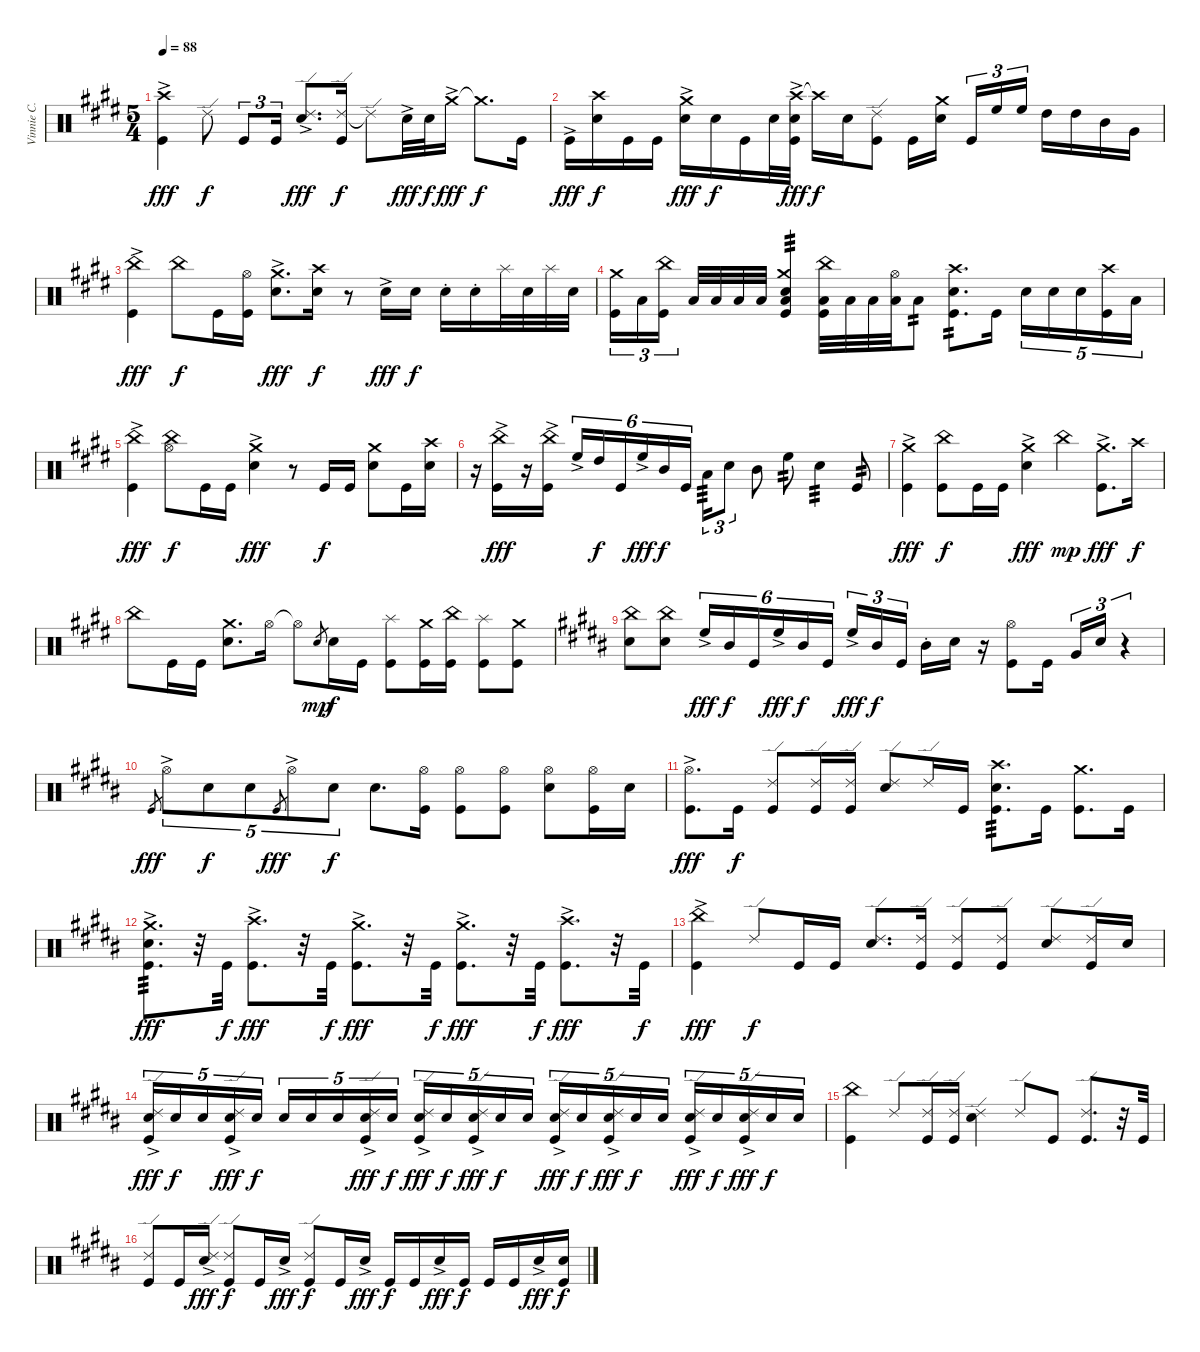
\track ("Vinnie C." "Vinnie C.") {instrument percussion}
\staff {score}
\articulation defaults
\ts (5 4)
\tempo 88
\clef neutral
\ks e
("Crash high (hit)"{ac} "Kick (hit)").4{dy fff} "Ride (edge) 2".8{dy f} "Kick (hit)".8{tu (3 2)} "Kick (hit)".16{tu (3 2)} ("Ride (edge) 2"{ac} "Electric Snare (hit)").8{d dy fff} ("Ride (edge) 2" "Kick (hit)").16{dy f} "Ride (edge) 2"{t}.8 "Electric Snare (hit)"{ac}.32{dy fff} "Electric Snare (hit)".32{dy f} "Crash medium (hit)"{ac}.16{dy fff} "Crash medium (hit)"{t}.8{d dy f} "Kick (hit)".16 |
"Kick (hit)"{ac}.16{dy fff} ("Crash high (hit)" "Electric Snare (hit)").16{dy f} "Kick (hit)".16 "Kick (hit)".16 ("Crash medium (hit)"{ac} "Electric Snare (hit)").16{dy fff} "Electric Snare (hit)".16{dy f} "Kick (hit)".16 "Electric Snare (hit)".32 ("Crash high (hit)"{ac} "Electric Snare (hit)" "Kick (hit)").32{dy fff} "Crash high (hit)"{t}.16{dy f} "Electric Snare (hit)".16 ("Ride (edge) 2" "Kick (hit)").8 "Kick (hit)".16 ("Crash medium (hit)" "Electric Snare (hit)").16 "Kick (hit)".16{tu (3 2)} "High Floor Tom (hit)".16{tu (3 2)} "High Floor Tom (hit)".16{tu (3 2)} "High Tom (hit)".16 "High Tom (hit)".16 "Mid Tom (hit)".16 "Very Low Tom (hit)".16 |
("China (hit)"{ac} "Kick (hit)").4{dy fff} "China (hit)".8{dy f} "Kick (hit)".16 ("Hi-Hat (open)" "Kick (hit)").16 ("Crash medium (hit)"{ac} "Electric Snare (hit)").8{d dy fff} ("Crash high (hit)" "Electric Snare (hit)").16{dy f} r.8 "Electric Snare (hit)"{ac}.16{dy fff} "Electric Snare (hit)".16{dy f} "Electric Snare (hit)"{st}.16 "Electric Snare (hit)"{st}.16 "Splash (hit)".32 "Electric Snare (hit)".32 "Splash (hit)".32 "Electric Snare (hit)".32 |
("Crash medium (hit)" "Kick (hit)").16{tu (3 2)} "Low Floor Tom (hit)".16{tu (3 2)} ("China (hit)" "Kick (hit)").16{tu (3 2)} "Low Floor Tom (hit)".32 "Low Floor Tom (hit)".32 "Low Floor Tom (hit)".32 "Low Floor Tom (hit)".32 ("Crash medium (hit)" "Low Floor Tom (hit)" "Electric Snare (hit)" "Kick (hit)").4{tp 3} ("China (hit)" "Low Floor Tom (hit)" "Kick (hit)").32 "Low Floor Tom (hit)".32 "Low Floor Tom (hit)".32 ("Hi-Hat (open)" "Low Floor Tom (hit)").32 "Low Floor Tom (hit)".8{tp 2} ("Crash high (hit)" "Electric Snare (hit)" "Kick (hit)").8{d tp 2} "Kick (hit)".16 "Electric Snare (hit)".16{tu (5 4)} "Electric Snare (hit)".16{tu (5 4)} "Electric Snare (hit)".16{tu (5 4)} ("Crash high (hit)" "Kick (hit)").16{tu (5 4)} "Low Floor Tom (hit)".16{tu (5 4)} |
("China (hit)"{ac} "Kick (hit)").4{dy fff} ("China (hit)" "Hi-Hat (open)").8{dy f} "Kick (hit)".16 "Kick (hit)".16 ("Crash medium (hit)"{ac} "Electric Snare (hit)").4{dy fff} r.8 "Kick (hit)".16{dy f} "Kick (hit)".16 ("Crash medium (hit)" "Electric Snare (hit)").8 "Kick (hit)".16 ("Crash high (hit)" "Electric Snare (hit)").16 |
r.16 ("China (hit)"{ac} "Kick (hit)").16{dy fff} r.16 ("China (hit)"{ac} "Kick (hit)").16 "High Floor Tom (hit)"{ac}.16{tu (6 4)} "High Tom (hit)".16{tu (6 4) dy f} "Kick (hit)".16{tu (6 4)} "High Floor Tom (hit)"{ac}.16{tu (6 4) dy fff} "Mid Tom (hit)".16{tu (6 4) dy f} "Kick (hit)".16{tu (6 4)} "Low Floor Tom (hit)".16{tu (3 2) tp 3} "Electric Snare (hit)".8{tu (3 2)} "Mid Tom (hit)".8 "High Floor Tom (hit)".8{tp 2} "Electric Snare (hit)".4{tp 3} "Kick (hit)".8{tp 2} |
("Crash medium (hit)"{ac} "Kick (hit)").4{dy fff} ("China (hit)" "Kick (hit)").8{dy f} "Kick (hit)".16 "Kick (hit)".16 ("Crash medium (hit)"{ac} "Electric Snare (hit)").4{dy fff} "China (hit)".4{dy mp} ("Crash medium (hit)"{ac} "Kick (hit)").8{d dy fff} "Crash high (hit)".16{dy f} |
"China (hit)".8 "Kick (hit)".16 "Kick (hit)".16 ("Crash medium (hit)" "Electric Snare (hit)").8{d} "Hi-Hat (open)".16 "Hi-Hat (open)"{t}.8 "Electric Snare (hit)".8{gr dy mp} "Electric Snare (hit)".16{dy f} "Kick (hit)".16 ("Splash (hit)" "Kick (hit)").8 ("Crash medium (hit)" "Kick (hit)").16 ("China (hit)" "Kick (hit)").16 ("Splash (hit)" "Kick (hit)").8 ("Crash medium (hit)" "Kick (hit)").8 |
\ks b
("China (hit)" "Electric Snare (hit)").8 ("China (hit)" "Electric Snare (hit)").8 "High Floor Tom (hit)"{ac}.16{tu (6 4) dy fff} "Mid Tom (hit)".16{tu (6 4) dy f} "Kick (hit)".16{tu (6 4)} "High Floor Tom (hit)"{ac}.16{tu (6 4) dy fff} "Mid Tom (hit)".16{tu (6 4) dy f} "Kick (hit)".16{tu (6 4)} "High Floor Tom (hit)"{ac}.16{tu (3 2) dy fff} "Mid Tom (hit)".16{tu (3 2) dy f} "Kick (hit)".16{tu (3 2)} "Mid Tom (hit)"{st}.16 "Electric Snare (hit)".16 r.16 ("Hi-Hat (open)" "Kick (hit)").8 "Kick (hit)".16 "Very Low Tom (hit)".16{tu (3 2)} "Electric Snare (hit)".16{tu (3 2)} r.4{tu (3 2)} |
"Kick (hit)".8{gr dy fff} "Hi-Hat (open)"{ac}.8{tu (5 4)} "Electric Snare (hit)".8{tu (5 4) dy f} "Electric Snare (hit)".8{tu (5 4)} "Kick (hit)".8{gr dy fff} "Hi-Hat (open)"{ac}.8{tu (5 4)} "Electric Snare (hit)".8{tu (5 4) dy f} "Electric Snare (hit)".8{d} ("Hi-Hat (open)" "Kick (hit)").16 ("Hi-Hat (open)" "Kick (hit)").8 ("Hi-Hat (open)" "Kick (hit)").8 ("Hi-Hat (open)" "Electric Snare (hit)").8 ("Hi-Hat (open)" "Kick (hit)").16 "Electric Snare (hit)".16 |
("Hi-Hat (open)"{ac} "Kick (hit)").8{d dy fff} "Kick (hit)".16{dy f} ("Ride (edge) 2" "Kick (hit)").8 ("Ride (edge) 2" "Kick (hit)").16 ("Ride (edge) 2" "Kick (hit)").16 ("Ride (edge) 2" "Electric Snare (hit)").8 "Ride (edge) 2".16 "Kick (hit)".16 ("Crash high (hit)" "Electric Snare (hit)" "Kick (hit)").8{d tp 3} "Kick (hit)".16 ("Crash medium (hit)" "Kick (hit)").8{d} "Kick (hit)".16 |
("Crash medium (hit)"{ac} "Electric Snare (hit)" "Kick (hit)").8{d tp 3 dy fff} r.32 "Kick (hit)".32{dy f} ("Crash high (hit)"{ac} "Kick (hit)").8{d dy fff} r.32 "Kick (hit)".32{dy f} ("Crash medium (hit)"{ac} "Kick (hit)").8{d dy fff} r.32 "Kick (hit)".32{dy f} ("Crash medium (hit)"{ac} "Kick (hit)").8{d dy fff} r.32 "Kick (hit)".32{dy f} ("Crash high (hit)"{ac} "Kick (hit)").8{d dy fff} r.32 "Kick (hit)".32{dy f} |
("China (hit)"{ac} "Kick (hit)").4{dy fff} "Ride (edge) 2".8{dy f} "Kick (hit)".16 "Kick (hit)".16 ("Ride (edge) 2" "Electric Snare (hit)").8{d} ("Ride (edge) 2" "Kick (hit)").16 ("Ride (edge) 2" "Kick (hit)").8 ("Ride (edge) 2" "Kick (hit)").8 ("Ride (edge) 2" "Electric Snare (hit)").8 ("Ride (edge) 2" "Kick (hit)").16 "Electric Snare (hit)".16 |
("Ride (edge) 2"{ac} "Electric Snare (hit)" "Kick (hit)").16{tu (5 4) dy fff} "Electric Snare (hit)".16{tu (5 4) dy f} "Electric Snare (hit)".16{tu (5 4)} ("Ride (edge) 2"{ac} "Electric Snare (hit)" "Kick (hit)").16{tu (5 4) dy fff} "Electric Snare (hit)".16{tu (5 4) dy f} "Electric Snare (hit)".16{tu (5 4)} "Electric Snare (hit)".16{tu (5 4)} "Electric Snare (hit)".16{tu (5 4)} ("Ride (edge) 2"{ac} "Electric Snare (hit)" "Kick (hit)").16{tu (5 4) dy fff} "Electric Snare (hit)".16{tu (5 4) dy f} ("Ride (edge) 2"{ac} "Electric Snare (hit)" "Kick (hit)").16{tu (5 4) dy fff} "Electric Snare (hit)".16{tu (5 4) dy f} ("Ride (edge) 2"{ac} "Electric Snare (hit)" "Kick (hit)").16{tu (5 4) dy fff} "Electric Snare (hit)".16{tu (5 4) dy f} "Electric Snare (hit)".16{tu (5 4)} ("Ride (edge) 2"{ac} "Electric Snare (hit)" "Kick (hit)").16{tu (5 4) dy fff} "Electric Snare (hit)".16{tu (5 4) dy f} ("Ride (edge) 2"{ac} "Electric Snare (hit)" "Kick (hit)").16{tu (5 4) dy fff} "Electric Snare (hit)".16{tu (5 4) dy f} "Electric Snare (hit)".16{tu (5 4)} ("Ride (edge) 2"{ac} "Electric Snare (hit)" "Kick (hit)").16{tu (5 4) dy fff} "Electric Snare (hit)".16{tu (5 4) dy f} ("Ride (edge) 2"{ac} "Electric Snare (hit)" "Kick (hit)").16{tu (5 4) dy fff} "Electric Snare (hit)".16{tu (5 4) dy f} "Electric Snare (hit)".16{tu (5 4)} |
("China (hit)" "Kick (hit)").4 "Ride (edge) 2".8 ("Ride (edge) 2" "Kick (hit)").16 ("Ride (edge) 2" "Kick (hit)").16 ("Ride (edge) 2" "Electric Snare (hit)").4 "Ride (edge) 2".8 "Kick (hit)".8 ("Ride (edge) 2" "Kick (hit)").8{d} r.32 "Kick (hit)".32 |
("Ride (edge) 2" "Kick (hit)").8 "Kick (hit)".16 ("Ride (edge) 2"{ac} "Electric Snare (hit)").16{dy fff} ("Ride (edge) 2" "Kick (hit)").8{dy f} "Kick (hit)".16 "Electric Snare (hit)"{ac}.16{dy fff} ("Ride (edge) 2" "Kick (hit)").8{dy f} "Kick (hit)".16 "Electric Snare (hit)"{ac}.16{dy fff} "Kick (hit)".16{dy f} "Kick (hit)".16 "Electric Snare (hit)"{ac}.16{dy fff} "Kick (hit)".16{dy f} "Kick (hit)".16 "Kick (hit)".16 "Electric Snare (hit)"{ac}.16{dy fff} ("Electric Snare (hit)" "Kick (hit)").16{dy f}
